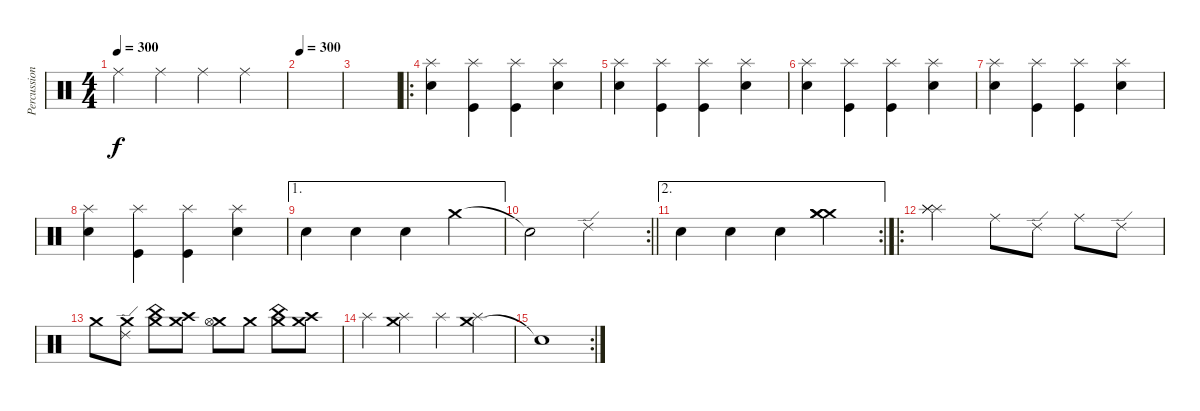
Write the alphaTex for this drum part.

\track ("Percussion" "Percussion") {instrument percussion}
\staff {score}
\articulation defaults
\ts (4 4)
\tempo 300
\tempo 100
\tempo 300
\clef neutral
\ks c "Ride (middle)".4{dy f} "Ride (middle)".4 "Ride (middle)".4 "Ride (middle)".4
|
\tempo 300
|
|
\ro
("Snare (hit) 2" "Splash (hit)").4 ("Kick (hit)" "Splash (hit)").4 ("Kick (hit)" "Splash (hit)").4 ("Snare (hit) 2" "Splash (hit)").4 |
("Snare (hit) 2" "Splash (hit)").4 ("Kick (hit)" "Splash (hit)").4 ("Kick (hit)" "Splash (hit)").4 ("Snare (hit) 2" "Splash (hit)").4 |
("Snare (hit) 2" "Splash (hit)").4 ("Kick (hit)" "Splash (hit)").4 ("Kick (hit)" "Splash (hit)").4 ("Snare (hit) 2" "Splash (hit)").4 |
("Snare (hit) 2" "Splash (hit)").4 ("Kick (hit)" "Splash (hit)").4 ("Kick (hit)" "Splash (hit)").4 ("Snare (hit) 2" "Splash (hit)").4 |
("Snare (hit) 2" "Splash (hit)").4 ("Kick (hit)" "Splash (hit)").4 ("Kick (hit)" "Splash (hit)").4 ("Snare (hit) 2" "Splash (hit)").4 |
\ae 1 "Snare (hit) 2".4 "Snare (hit) 2".4 "Snare (hit) 2".4 "Crash medium (hit)".4
|
\rc 2
\barLineRight lightlight "Snare (hit)"{t}.2 "Ride (edge) 2".2
|
\ae 2
\rc 2 "Snare (hit) 2".4 "Snare (hit) 2".4 "Snare (hit) 2".4
("Crash medium (hit)" "Crash medium (hit)" "Crash medium (hit)").4 |
\ro
("Splash (hit)" "Splash (hit)" "Splash (hit)").2 "Ride (middle)".8 "Ride (edge) 2".8 "Ride (middle)".8 "Ride (edge) 2".8 |
"Crash medium (hit)".8 ("Crash medium (hit)" "Ride (edge) 2").8 ("Crash medium (hit)" "China (hit)").8 ("Crash high (hit)" "Crash medium (hit)").8 ("Crash medium (hit)" "Hi-Hat (open)").8 "Crash medium (hit)".8 ("Crash medium (hit)" "China (hit)").8 ("Crash medium (hit)" "Crash high (hit)").8 |
"Splash (hit)".4 ("Crash medium (hit)" "Splash (hit)").4 "Splash (hit)".4 ("Crash medium (hit)" "Splash (hit)").4 |
\rc 2 "Snare (hit)"{t}.1
